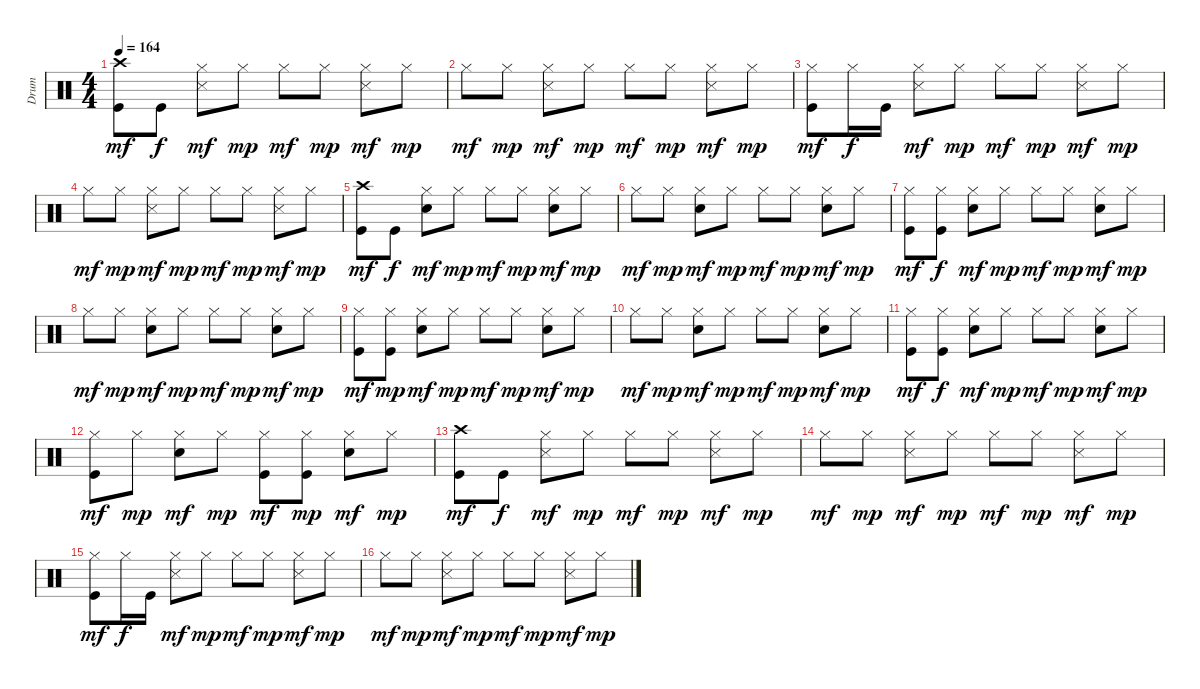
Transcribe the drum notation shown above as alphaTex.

\track ("Drum" "Drum") {instrument percussion}
\staff {score}
\articulation defaults
\ts (4 4)
\tempo 164
\clef neutral
\ks c
("Crash high (hit)" "Kick (hit)").8{dy mf} "Kick (hit)".8{dy f} ("Snare (side stick) 3" "Hi-Hat (closed)").8{dy mf} "Hi-Hat (closed)".8{dy mp} "Hi-Hat (closed)".8{dy mf} "Hi-Hat (closed)".8{dy mp} ("Snare (side stick) 3" "Hi-Hat (closed)").8{dy mf} "Hi-Hat (closed)".8{dy mp} |
"Hi-Hat (closed)".8{dy mf} "Hi-Hat (closed)".8{dy mp} ("Snare (side stick) 3" "Hi-Hat (closed)").8{dy mf} "Hi-Hat (closed)".8{dy mp} "Hi-Hat (closed)".8{dy mf} "Hi-Hat (closed)".8{dy mp} ("Snare (side stick) 3" "Hi-Hat (closed)").8{dy mf} "Hi-Hat (closed)".8{dy mp} |
("Hi-Hat (closed)" "Kick (hit)").8{dy mf} "Hi-Hat (closed)".16{dy f} "Kick (hit)".16 ("Snare (side stick) 3" "Hi-Hat (closed)").8{dy mf} "Hi-Hat (closed)".8{dy mp} "Hi-Hat (closed)".8{dy mf} "Hi-Hat (closed)".8{dy mp} ("Snare (side stick) 3" "Hi-Hat (closed)").8{dy mf} "Hi-Hat (closed)".8{dy mp} |
"Hi-Hat (closed)".8{dy mf} "Hi-Hat (closed)".8{dy mp} ("Snare (side stick) 3" "Hi-Hat (closed)").8{dy mf} "Hi-Hat (closed)".8{dy mp} "Hi-Hat (closed)".8{dy mf} "Hi-Hat (closed)".8{dy mp} ("Snare (side stick) 3" "Hi-Hat (closed)").8{dy mf} "Hi-Hat (closed)".8{dy mp} |
("Crash high (hit)" "Kick (hit)").8{dy mf} "Kick (hit)".8{dy f} ("Electric Snare (hit)" "Hi-Hat (closed)").8{dy mf} "Hi-Hat (closed)".8{dy mp} "Hi-Hat (closed)".8{dy mf} "Hi-Hat (closed)".8{dy mp} ("Electric Snare (hit)" "Hi-Hat (closed)").8{dy mf} "Hi-Hat (closed)".8{dy mp} |
"Hi-Hat (closed)".8{dy mf} "Hi-Hat (closed)".8{dy mp} ("Electric Snare (hit)" "Hi-Hat (closed)").8{dy mf} "Hi-Hat (closed)".8{dy mp} "Hi-Hat (closed)".8{dy mf} "Hi-Hat (closed)".8{dy mp} ("Electric Snare (hit)" "Hi-Hat (closed)").8{dy mf} "Hi-Hat (closed)".8{dy mp} |
("Hi-Hat (closed)" "Kick (hit)").8{dy mf} ("Hi-Hat (closed)" "Kick (hit)").8{dy f} ("Electric Snare (hit)" "Hi-Hat (closed)").8{dy mf} "Hi-Hat (closed)".8{dy mp} "Hi-Hat (closed)".8{dy mf} "Hi-Hat (closed)".8{dy mp} ("Electric Snare (hit)" "Hi-Hat (closed)").8{dy mf} "Hi-Hat (closed)".8{dy mp} |
"Hi-Hat (closed)".8{dy mf} "Hi-Hat (closed)".8{dy mp} ("Electric Snare (hit)" "Hi-Hat (closed)").8{dy mf} "Hi-Hat (closed)".8{dy mp} "Hi-Hat (closed)".8{dy mf} "Hi-Hat (closed)".8{dy mp} ("Electric Snare (hit)" "Hi-Hat (closed)").8{dy mf} "Hi-Hat (closed)".8{dy mp} |
("Hi-Hat (closed)" "Kick (hit)").8{dy mf} ("Hi-Hat (closed)" "Kick (hit)").8{dy mp} ("Electric Snare (hit)" "Hi-Hat (closed)").8{dy mf} "Hi-Hat (closed)".8{dy mp} "Hi-Hat (closed)".8{dy mf} "Hi-Hat (closed)".8{dy mp} ("Electric Snare (hit)" "Hi-Hat (closed)").8{dy mf} "Hi-Hat (closed)".8{dy mp} |
"Hi-Hat (closed)".8{dy mf} "Hi-Hat (closed)".8{dy mp} ("Electric Snare (hit)" "Hi-Hat (closed)").8{dy mf} "Hi-Hat (closed)".8{dy mp} "Hi-Hat (closed)".8{dy mf} "Hi-Hat (closed)".8{dy mp} ("Electric Snare (hit)" "Hi-Hat (closed)").8{dy mf} "Hi-Hat (closed)".8{dy mp} |
("Hi-Hat (closed)" "Kick (hit)").8{dy mf} ("Hi-Hat (closed)" "Kick (hit)").8{dy f} ("Electric Snare (hit)" "Hi-Hat (closed)").8{dy mf} "Hi-Hat (closed)".8{dy mp} "Hi-Hat (closed)".8{dy mf} "Hi-Hat (closed)".8{dy mp} ("Electric Snare (hit)" "Hi-Hat (closed)").8{dy mf} "Hi-Hat (closed)".8{dy mp} |
("Hi-Hat (closed)" "Kick (hit)").8{dy mf} "Hi-Hat (closed)".8{dy mp} ("Electric Snare (hit)" "Hi-Hat (closed)").8{dy mf} "Hi-Hat (closed)".8{dy mp} ("Hi-Hat (closed)" "Kick (hit)").8{dy mf} ("Hi-Hat (closed)" "Kick (hit)").8{dy mp} ("Electric Snare (hit)" "Hi-Hat (closed)").8{dy mf} "Hi-Hat (closed)".8{dy mp} |
("Crash high (hit)" "Kick (hit)").8{dy mf} "Kick (hit)".8{dy f} ("Snare (side stick) 3" "Hi-Hat (closed)").8{dy mf} "Hi-Hat (closed)".8{dy mp} "Hi-Hat (closed)".8{dy mf} "Hi-Hat (closed)".8{dy mp} ("Snare (side stick) 3" "Hi-Hat (closed)").8{dy mf} "Hi-Hat (closed)".8{dy mp} |
"Hi-Hat (closed)".8{dy mf} "Hi-Hat (closed)".8{dy mp} ("Snare (side stick) 3" "Hi-Hat (closed)").8{dy mf} "Hi-Hat (closed)".8{dy mp} "Hi-Hat (closed)".8{dy mf} "Hi-Hat (closed)".8{dy mp} ("Snare (side stick) 3" "Hi-Hat (closed)").8{dy mf} "Hi-Hat (closed)".8{dy mp} |
("Hi-Hat (closed)" "Kick (hit)").8{dy mf} "Hi-Hat (closed)".16{dy f} "Kick (hit)".16 ("Snare (side stick) 3" "Hi-Hat (closed)").8{dy mf} "Hi-Hat (closed)".8{dy mp} "Hi-Hat (closed)".8{dy mf} "Hi-Hat (closed)".8{dy mp} ("Snare (side stick) 3" "Hi-Hat (closed)").8{dy mf} "Hi-Hat (closed)".8{dy mp} |
"Hi-Hat (closed)".8{dy mf} "Hi-Hat (closed)".8{dy mp} ("Snare (side stick) 3" "Hi-Hat (closed)").8{dy mf} "Hi-Hat (closed)".8{dy mp} "Hi-Hat (closed)".8{dy mf} "Hi-Hat (closed)".8{dy mp} ("Snare (side stick) 3" "Hi-Hat (closed)").8{dy mf} "Hi-Hat (closed)".8{dy mp}
